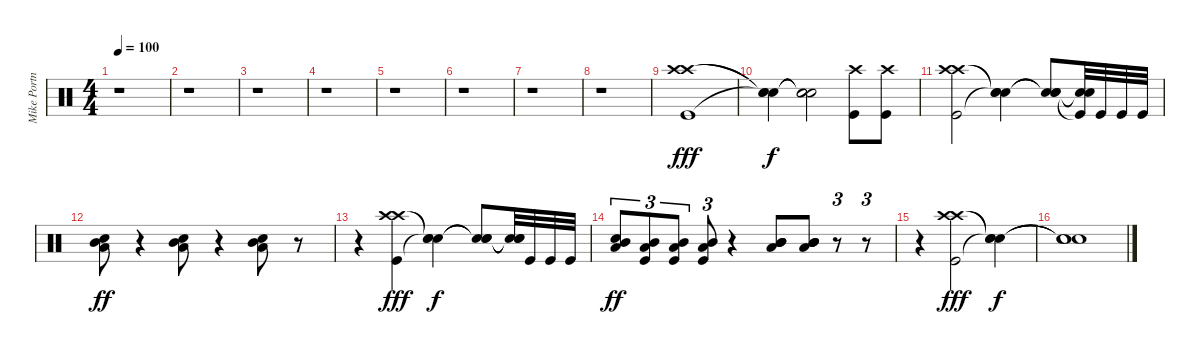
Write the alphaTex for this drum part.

\track ("Mike Portnoy" "Mike Portn") {instrument percussion}
\staff {score}
\articulation defaults
\ts (4 4)
\tempo 100
\clef neutral
\ks c
r.1{dy fff} |
r.1 |
r.1 |
r.1 |
r.1 |
r.1 |
r.1 |
r.1 |
("Crash high (hit)" "Crash high (hit)" "Kick (hit)").1 |
("Snare (hit)"{t} "Snare (hit)"{t} "Snare (hit)"{t}).4{dy f} ("Snare (hit)"{t} "Snare (hit)"{t} "Snare (hit)"{t}).2 ("Crash high (hit)" "Kick (hit)").8 ("Crash high (hit)" "Kick (hit)").8 |
("Crash high (hit)" "Crash high (hit)" "Kick (hit)").2 ("Snare (hit)"{t} "Snare (hit)"{t} "Snare (hit)"{t}).4 ("Snare (hit)"{t} "Snare (hit)"{t} "Snare (hit)"{t}).8 ("Snare (hit)"{t} "Snare (hit)"{t} "Kick (hit)"{t}).32 "Kick (hit)".32 "Kick (hit)".32 "Kick (hit)".32 |
("Electric Snare (hit)" "Mid Tom (hit)" "Low Tom (hit)").8{dy ff} r.4 ("Electric Snare (hit)" "Mid Tom (hit)" "Low Tom (hit)").8 r.4 ("Electric Snare (hit)" "Mid Tom (hit)" "Low Tom (hit)").8 r.8 |
r.4 ("Crash high (hit)" "Crash high (hit)" "Kick (hit)").4{dy fff} ("Snare (hit)"{t} "Snare (hit)"{t} "Snare (hit)"{t}).4{dy f} ("Snare (hit)"{t} "Snare (hit)"{t} "Snare (hit)"{t}).8 ("Snare (hit)"{t} "Snare (hit)"{t} "Snare (hit)"{t}).32 "Kick (hit)".32 "Kick (hit)".32 "Kick (hit)".32 |
("Electric Snare (hit)" "Mid Tom (hit)" "Low Tom (hit)").8{tu (3 2) dy ff} ("Kick (hit)" "Mid Tom (hit)" "Low Tom (hit)").8{tu (3 2)} ("Kick (hit)" "Mid Tom (hit)" "Low Tom (hit)").8{tu (3 2)} ("Kick (hit)" "Mid Tom (hit)" "Low Tom (hit)").8{tu (3 2)} r.4 ("Mid Tom (hit)" "Mid Tom (hit)" "Mid Tom (hit)" "Low Tom (hit)").8 ("Mid Tom (hit)" "Mid Tom (hit)" "Mid Tom (hit)" "Low Tom (hit)").8 r.8{tu (3 2)} r.8{tu (3 2)} |
r.4 ("Crash high (hit)" "Crash high (hit)" "Kick (hit)").2{dy fff} ("Snare (hit)"{t} "Snare (hit)"{t} "Snare (hit)"{t}).4{dy f} |
("Snare (hit)"{t} "Snare (hit)"{t} "Snare (hit)"{t}).1
